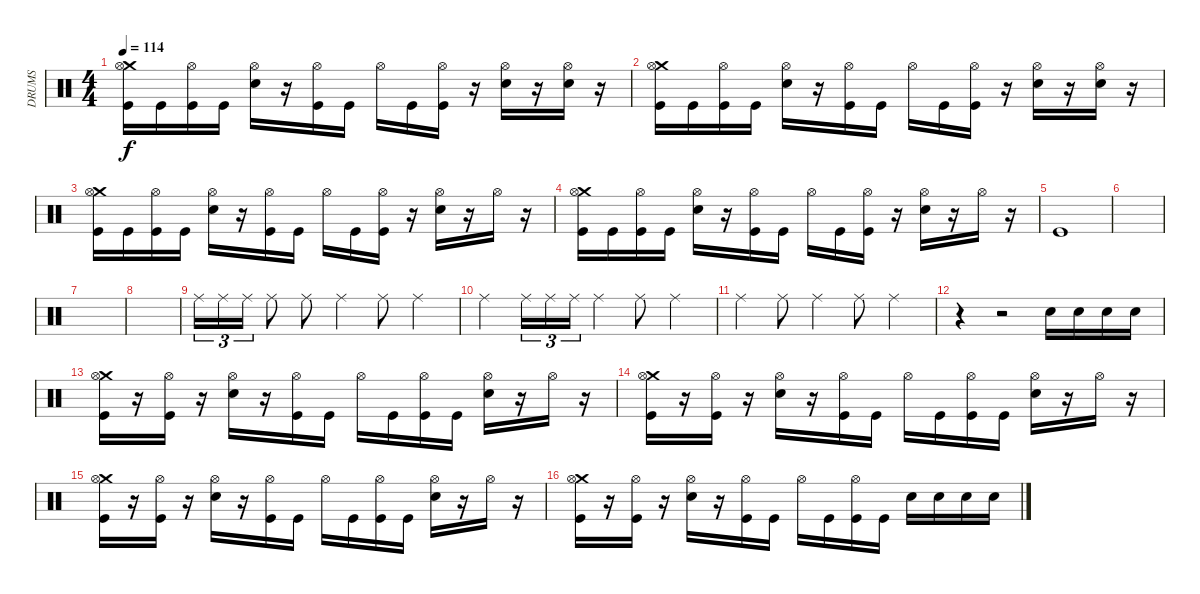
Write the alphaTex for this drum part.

\track ("DRUMS" "DRUMS") {instrument percussion}
\staff {score}
\articulation defaults
\ts (4 4)
\tempo 114
\clef neutral
\ks c
("Crash medium (hit)" "Hi-Hat (open)" "Kick (hit)").16{dy f} "Kick (hit)".16 ("Hi-Hat (open)" "Kick (hit)").16 "Kick (hit)".16 ("Hi-Hat (open)" "Electric Snare (hit)").16 r.16 ("Hi-Hat (open)" "Kick (hit)").16 "Kick (hit)".16 "Hi-Hat (open)".16 "Kick (hit)".16 ("Hi-Hat (open)" "Kick (hit)").16 r.16 ("Hi-Hat (open)" "Electric Snare (hit)").16 r.16 ("Hi-Hat (open)" "Electric Snare (hit)").16 r.16 |
("Crash medium (hit)" "Hi-Hat (open)" "Kick (hit)").16 "Kick (hit)".16 ("Hi-Hat (open)" "Kick (hit)").16 "Kick (hit)".16 ("Hi-Hat (open)" "Electric Snare (hit)").16 r.16 ("Hi-Hat (open)" "Kick (hit)").16 "Kick (hit)".16 "Hi-Hat (open)".16 "Kick (hit)".16 ("Hi-Hat (open)" "Kick (hit)").16 r.16 ("Hi-Hat (open)" "Electric Snare (hit)").16 r.16 ("Hi-Hat (open)" "Electric Snare (hit)").16 r.16 |
("Crash medium (hit)" "Hi-Hat (open)" "Kick (hit)").16 "Kick (hit)".16 ("Hi-Hat (open)" "Kick (hit)").16 "Kick (hit)".16 ("Hi-Hat (open)" "Electric Snare (hit)").16 r.16 ("Hi-Hat (open)" "Kick (hit)").16 "Kick (hit)".16 "Hi-Hat (open)".16 "Kick (hit)".16 ("Hi-Hat (open)" "Kick (hit)").16 r.16 ("Hi-Hat (open)" "Electric Snare (hit)").16 r.16 "Hi-Hat (open)".16 r.16 |
("Crash medium (hit)" "Hi-Hat (open)" "Kick (hit)").16 "Kick (hit)".16 ("Hi-Hat (open)" "Kick (hit)").16 "Kick (hit)".16 ("Hi-Hat (open)" "Electric Snare (hit)").16 r.16 ("Hi-Hat (open)" "Kick (hit)").16 "Kick (hit)".16 "Hi-Hat (open)".16 "Kick (hit)".16 ("Hi-Hat (open)" "Kick (hit)").16 r.16 ("Hi-Hat (open)" "Electric Snare (hit)").16 r.16 "Hi-Hat (open)".16 r.16 |
"Kick (hit)".1 |
|
|
|
"Ride (middle)".16{tu (3 2)} "Ride (middle)".16{tu (3 2)} "Ride (middle)".16{tu (3 2)} "Ride (middle)".8 "Ride (middle)".8 "Ride (middle)".4 "Ride (middle)".8 "Ride (middle)".4 |
"Ride (middle)".4 "Ride (middle)".16{tu (3 2)} "Ride (middle)".16{tu (3 2)} "Ride (middle)".16{tu (3 2)} "Ride (middle)".4 "Ride (middle)".8 "Ride (middle)".4 |
"Ride (middle)".4 "Ride (middle)".8 "Ride (middle)".4 "Ride (middle)".8 "Ride (middle)".4 |
r.4 r.2 "Electric Snare (hit)".16 "Electric Snare (hit)".16 "Electric Snare (hit)".16 "Electric Snare (hit)".16 |
("Crash medium (hit)" "Hi-Hat (open)" "Kick (hit)").16 r.16 ("Hi-Hat (open)" "Kick (hit)").16 r.16 ("Hi-Hat (open)" "Electric Snare (hit)").16 r.16 ("Hi-Hat (open)" "Kick (hit)").16 "Kick (hit)".16 "Hi-Hat (open)".16 "Kick (hit)".16 ("Hi-Hat (open)" "Kick (hit)").16 "Kick (hit)".16 ("Hi-Hat (open)" "Electric Snare (hit)").16 r.16 "Hi-Hat (open)".16 r.16 |
("Crash medium (hit)" "Hi-Hat (open)" "Kick (hit)").16 r.16 ("Hi-Hat (open)" "Kick (hit)").16 r.16 ("Hi-Hat (open)" "Electric Snare (hit)").16 r.16 ("Hi-Hat (open)" "Kick (hit)").16 "Kick (hit)".16 "Hi-Hat (open)".16 "Kick (hit)".16 ("Hi-Hat (open)" "Kick (hit)").16 "Kick (hit)".16 ("Hi-Hat (open)" "Electric Snare (hit)").16 r.16 "Hi-Hat (open)".16 r.16 |
("Crash medium (hit)" "Hi-Hat (open)" "Kick (hit)").16 r.16 ("Hi-Hat (open)" "Kick (hit)").16 r.16 ("Hi-Hat (open)" "Electric Snare (hit)").16 r.16 ("Hi-Hat (open)" "Kick (hit)").16 "Kick (hit)".16 "Hi-Hat (open)".16 "Kick (hit)".16 ("Hi-Hat (open)" "Kick (hit)").16 "Kick (hit)".16 ("Hi-Hat (open)" "Electric Snare (hit)").16 r.16 "Hi-Hat (open)".16 r.16 |
("Crash medium (hit)" "Hi-Hat (open)" "Kick (hit)").16 r.16 ("Hi-Hat (open)" "Kick (hit)").16 r.16 ("Hi-Hat (open)" "Electric Snare (hit)").16 r.16 ("Hi-Hat (open)" "Kick (hit)").16 "Kick (hit)".16 "Hi-Hat (open)".16 "Kick (hit)".16 ("Hi-Hat (open)" "Kick (hit)").16 "Kick (hit)".16 "Electric Snare (hit)".16 "Electric Snare (hit)".16 "Electric Snare (hit)".16 "Electric Snare (hit)".16
